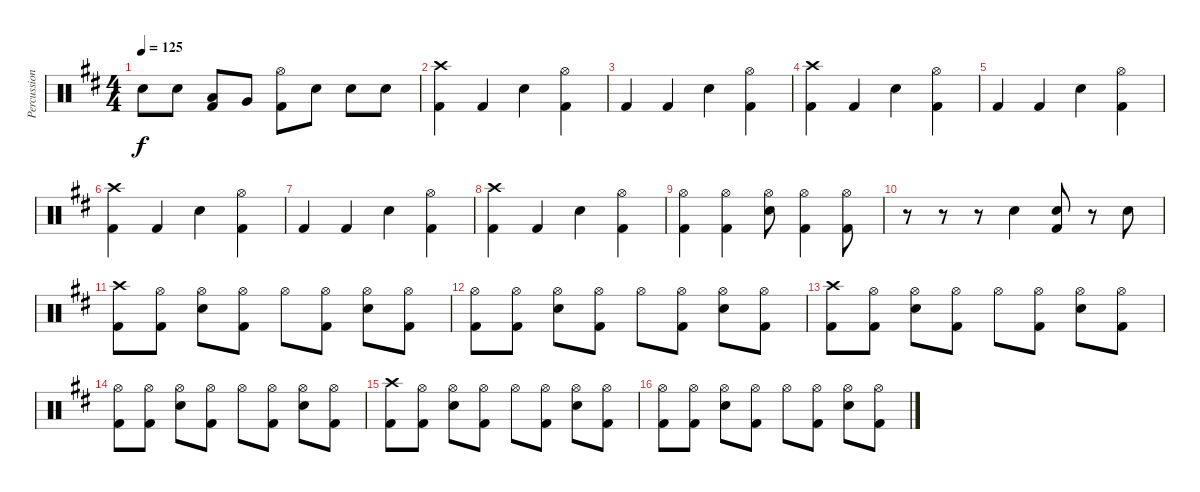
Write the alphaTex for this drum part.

\track ("Percussion" "Percussion") {instrument percussion}
\staff {score}
\articulation defaults
\ts (4 4)
\tempo 125
\clef neutral
\ks d "Electric Snare (hit)".8{dy f} "Electric Snare (hit)".8
("Low Tom (hit)" "Kick (hit) 2").8 "Very Low Tom (hit)".8 ("Hi-Hat (open)" "Kick (hit) 2").8 "Electric Snare (hit)".8 "Electric Snare (hit)".8 "Electric Snare (hit)".8 |
("Crash high (hit)" "Kick (hit) 2").4 "Kick (hit) 2".4 "Electric Snare (hit)".4 ("Hi-Hat (open)" "Kick (hit) 2").4 |
"Kick (hit) 2".4 "Kick (hit) 2".4 "Electric Snare (hit)".4 ("Hi-Hat (open)" "Kick (hit) 2").4 |
("Crash high (hit)" "Kick (hit) 2").4 "Kick (hit) 2".4 "Electric Snare (hit)".4 ("Hi-Hat (open)" "Kick (hit) 2").4 |
"Kick (hit) 2".4 "Kick (hit) 2".4 "Electric Snare (hit)".4 ("Hi-Hat (open)" "Kick (hit) 2").4 |
("Crash high (hit)" "Kick (hit) 2").4 "Kick (hit) 2".4 "Electric Snare (hit)".4 ("Hi-Hat (open)" "Kick (hit) 2").4 |
"Kick (hit) 2".4 "Kick (hit) 2".4 "Electric Snare (hit)".4 ("Hi-Hat (open)" "Kick (hit) 2").4 |
("Crash high (hit)" "Kick (hit) 2").4 "Kick (hit) 2".4 "Electric Snare (hit)".4 ("Hi-Hat (open)" "Kick (hit) 2").4 |
("Hi-Hat (open)" "Kick (hit) 2").4 ("Hi-Hat (open)" "Kick (hit) 2").4 ("Hi-Hat (open)" "Electric Snare (hit)").8 ("Hi-Hat (open)" "Kick (hit) 2").4 ("Hi-Hat (open)" "Kick (hit) 2").8 |
r.8 r.8 r.8 "Electric Snare (hit)".4 ("Electric Snare (hit)" "Kick (hit) 2").8 r.8 "Electric Snare (hit)".8 |
("Crash high (hit)" "Kick (hit) 2").8 ("Hi-Hat (open)" "Kick (hit) 2").8 ("Hi-Hat (open)" "Electric Snare (hit)").8 ("Hi-Hat (open)" "Kick (hit) 2").8 "Hi-Hat (open)".8 ("Hi-Hat (open)" "Kick (hit) 2").8 ("Hi-Hat (open)" "Electric Snare (hit)").8 ("Hi-Hat (open)" "Kick (hit) 2").8 |
("Hi-Hat (open)" "Kick (hit) 2").8 ("Hi-Hat (open)" "Kick (hit) 2").8 ("Hi-Hat (open)" "Electric Snare (hit)").8 ("Hi-Hat (open)" "Kick (hit) 2").8 "Hi-Hat (open)".8 ("Hi-Hat (open)" "Kick (hit) 2").8 ("Hi-Hat (open)" "Electric Snare (hit)").8 ("Hi-Hat (open)" "Kick (hit) 2").8 |
("Crash high (hit)" "Kick (hit) 2").8 ("Hi-Hat (open)" "Kick (hit) 2").8 ("Hi-Hat (open)" "Electric Snare (hit)").8 ("Hi-Hat (open)" "Kick (hit) 2").8 "Hi-Hat (open)".8 ("Hi-Hat (open)" "Kick (hit) 2").8 ("Hi-Hat (open)" "Electric Snare (hit)").8 ("Hi-Hat (open)" "Kick (hit) 2").8 |
("Hi-Hat (open)" "Kick (hit) 2").8 ("Hi-Hat (open)" "Kick (hit) 2").8 ("Hi-Hat (open)" "Electric Snare (hit)").8 ("Hi-Hat (open)" "Kick (hit) 2").8 "Hi-Hat (open)".8 ("Hi-Hat (open)" "Kick (hit) 2").8 ("Hi-Hat (open)" "Electric Snare (hit)").8 ("Hi-Hat (open)" "Kick (hit) 2").8 |
("Crash high (hit)" "Kick (hit) 2").8 ("Hi-Hat (open)" "Kick (hit) 2").8 ("Hi-Hat (open)" "Electric Snare (hit)").8 ("Hi-Hat (open)" "Kick (hit) 2").8 "Hi-Hat (open)".8 ("Hi-Hat (open)" "Kick (hit) 2").8 ("Hi-Hat (open)" "Electric Snare (hit)").8 ("Hi-Hat (open)" "Kick (hit) 2").8 |
("Hi-Hat (open)" "Kick (hit) 2").8 ("Hi-Hat (open)" "Kick (hit) 2").8 ("Hi-Hat (open)" "Electric Snare (hit)").8 ("Hi-Hat (open)" "Kick (hit) 2").8 "Hi-Hat (open)".8 ("Hi-Hat (open)" "Kick (hit) 2").8 ("Hi-Hat (open)" "Electric Snare (hit)").8 ("Hi-Hat (open)" "Kick (hit) 2").8
